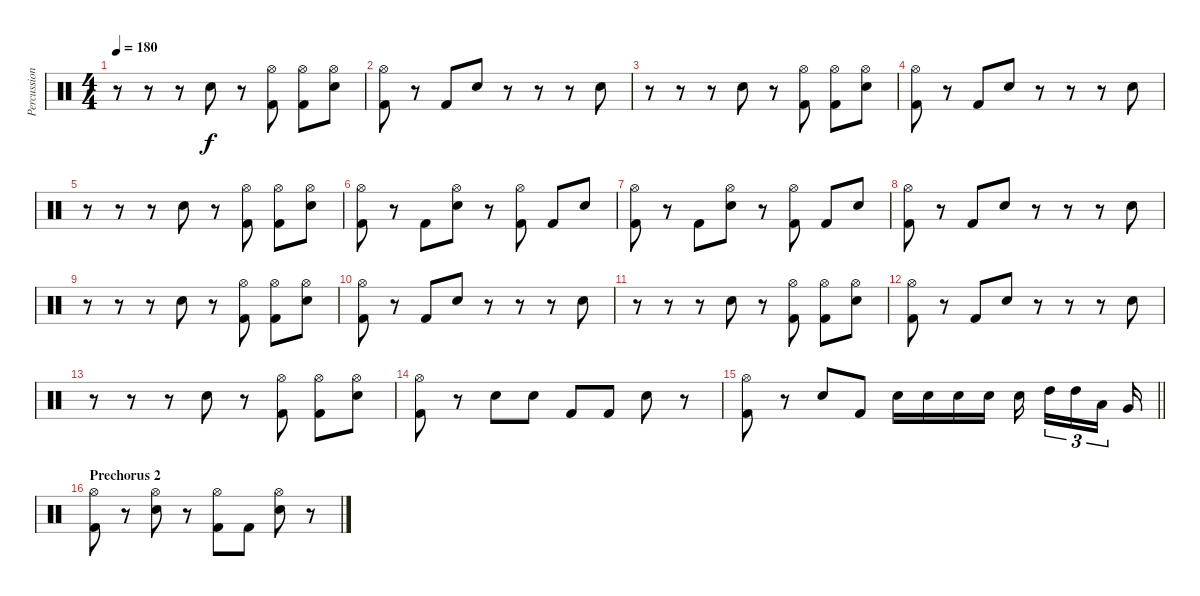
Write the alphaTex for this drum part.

\track ("Percussion" "Percussion") {instrument percussion}
\staff {score}
\articulation defaults
\ts (4 4)
\tempo 180
\clef neutral
\ks c
r.8{dy f} r.8 r.8 "Electric Snare (hit)".8 r.8 ("Hi-Hat (open)" "Kick (hit) 2").8 ("Hi-Hat (open)" "Kick (hit) 2").8 ("Hi-Hat (open)" "Electric Snare (hit)").8 |
("Hi-Hat (open)" "Kick (hit) 2").8 r.8 "Kick (hit) 2".8 "Electric Snare (hit)".8 r.8 r.8 r.8 "Electric Snare (hit)".8 |
r.8 r.8 r.8 "Electric Snare (hit)".8 r.8 ("Hi-Hat (open)" "Kick (hit) 2").8 ("Hi-Hat (open)" "Kick (hit) 2").8 ("Hi-Hat (open)" "Electric Snare (hit)").8 |
("Hi-Hat (open)" "Kick (hit) 2").8 r.8 "Kick (hit) 2".8 "Electric Snare (hit)".8 r.8 r.8 r.8 "Electric Snare (hit)".8 |
r.8 r.8 r.8 "Electric Snare (hit)".8 r.8 ("Hi-Hat (open)" "Kick (hit) 2").8 ("Hi-Hat (open)" "Kick (hit) 2").8 ("Hi-Hat (open)" "Electric Snare (hit)").8 |
("Hi-Hat (open)" "Kick (hit) 2").8 r.8 "Kick (hit) 2".8 ("Hi-Hat (open)" "Electric Snare (hit)").8 r.8 ("Hi-Hat (open)" "Kick (hit) 2").8 "Kick (hit) 2".8 "Electric Snare (hit)".8 |
("Hi-Hat (open)" "Kick (hit) 2").8 r.8 "Kick (hit) 2".8 ("Hi-Hat (open)" "Electric Snare (hit)").8 r.8 ("Hi-Hat (open)" "Kick (hit) 2").8 "Kick (hit) 2".8 "Electric Snare (hit)".8 |
("Hi-Hat (open)" "Kick (hit) 2").8 r.8 "Kick (hit) 2".8 "Electric Snare (hit)".8 r.8 r.8 r.8 "Electric Snare (hit)".8 |
r.8 r.8 r.8 "Electric Snare (hit)".8 r.8 ("Hi-Hat (open)" "Kick (hit) 2").8 ("Hi-Hat (open)" "Kick (hit) 2").8 ("Hi-Hat (open)" "Electric Snare (hit)").8 |
("Hi-Hat (open)" "Kick (hit) 2").8 r.8 "Kick (hit) 2".8 "Electric Snare (hit)".8 r.8 r.8 r.8 "Electric Snare (hit)".8 |
r.8 r.8 r.8 "Electric Snare (hit)".8 r.8 ("Hi-Hat (open)" "Kick (hit) 2").8 ("Hi-Hat (open)" "Kick (hit) 2").8 ("Hi-Hat (open)" "Electric Snare (hit)").8 |
("Hi-Hat (open)" "Kick (hit) 2").8 r.8 "Kick (hit) 2".8 "Electric Snare (hit)".8 r.8 r.8 r.8 "Electric Snare (hit)".8 |
r.8 r.8 r.8 "Electric Snare (hit)".8 r.8 ("Hi-Hat (open)" "Kick (hit) 2").8 ("Hi-Hat (open)" "Kick (hit) 2").8 ("Hi-Hat (open)" "Electric Snare (hit)").8 |
("Hi-Hat (open)" "Kick (hit) 2").8 r.8 "Electric Snare (hit)".8 "Electric Snare (hit)".8 "Kick (hit) 2".8 "Kick (hit) 2".8 "Electric Snare (hit)".8 r.8 |
\barLineRight lightlight
("Hi-Hat (open)" "Kick (hit) 2").8 r.8 "Electric Snare (hit)".8 "Kick (hit) 2".8 "Electric Snare (hit)".16 "Electric Snare (hit)".16 "Electric Snare (hit)".16 "Electric Snare (hit)".16 "Electric Snare (hit)".16{beam splitsecondary} "High Tom (hit)".16{tu (3 2)} "High Tom (hit)".16{tu (3 2)} "Low Tom (hit)".16{tu (3 2) beam splitsecondary} "Very Low Tom (hit)".16 |
\section ("" "Prechorus 2")
("Hi-Hat (open)" "Kick (hit) 2").8 r.8 ("Hi-Hat (open)" "Electric Snare (hit)").8 r.8 ("Hi-Hat (open)" "Kick (hit) 2").8 "Kick (hit) 2".8 ("Hi-Hat (open)" "Electric Snare (hit)").8 r.8
